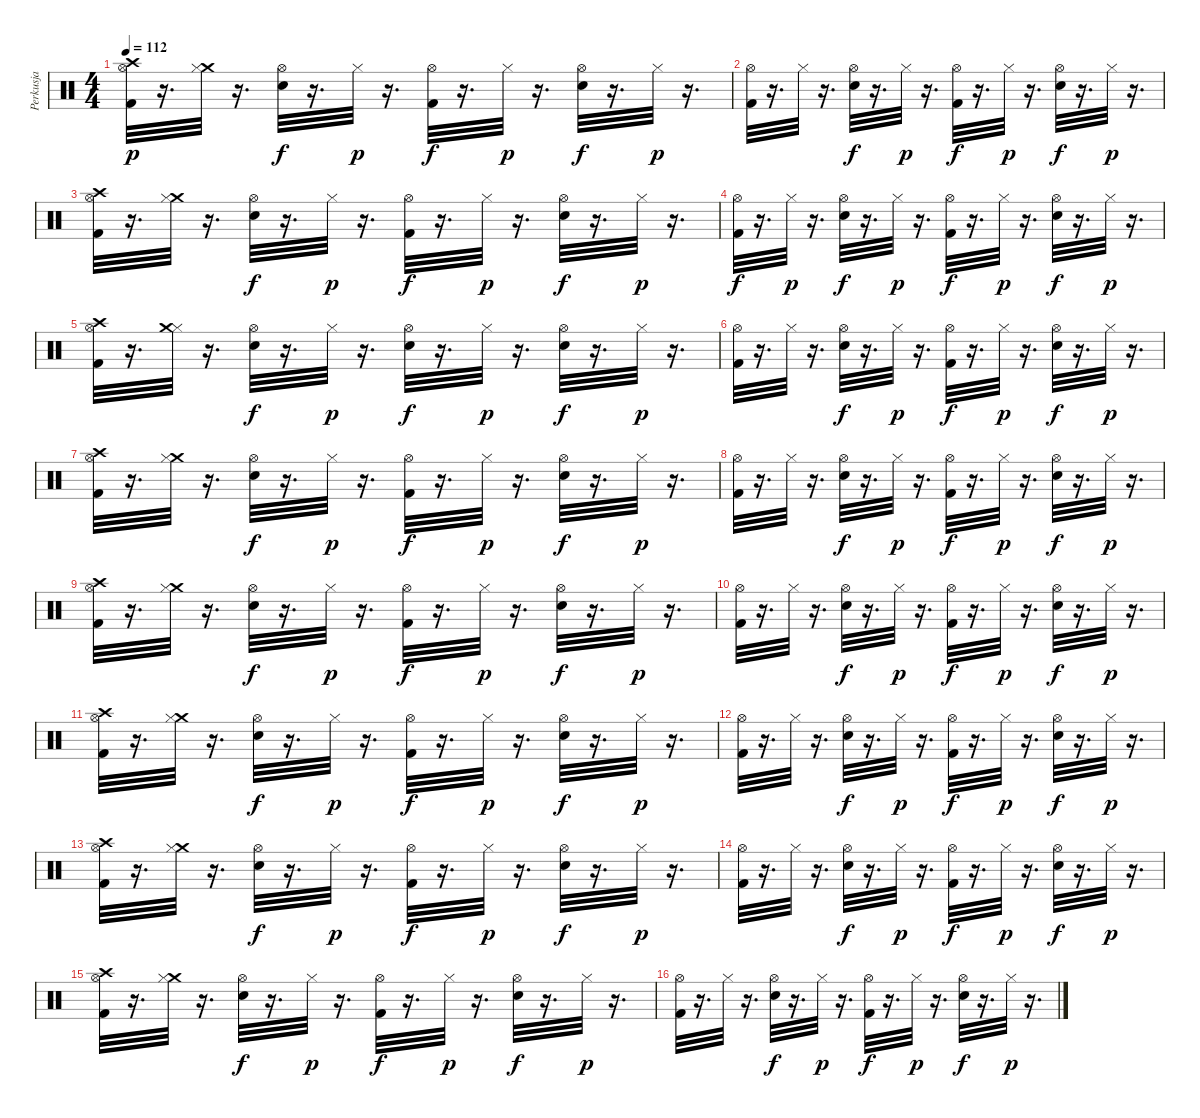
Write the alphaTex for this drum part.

\track ("Perkusja" "Perkusja") {instrument percussion}
\staff {score}
\articulation defaults
\ts (4 4)
\tempo 112
\clef neutral
\ks c
("Crash high (hit)" "Hi-Hat (open)" "Kick (hit) 2").32{dy p} r.16{d} ("Crash medium (hit)" "Hi-Hat (closed)").32 r.16{d} ("Hi-Hat (open)" "Snare (hit) 2").32{dy f} r.16{d} "Hi-Hat (closed)".32{dy p} r.16{d} ("Hi-Hat (open)" "Kick (hit) 2").32{dy f} r.16{d} "Hi-Hat (closed)".32{dy p} r.16{d} ("Hi-Hat (open)" "Snare (hit) 2").32{dy f} r.16{d} "Hi-Hat (closed)".32{dy p} r.16{d} |
("Hi-Hat (open)" "Kick (hit) 2").32 r.16{d} "Hi-Hat (closed)".32 r.16{d} ("Hi-Hat (open)" "Snare (hit) 2").32{dy f} r.16{d} "Hi-Hat (closed)".32{dy p} r.16{d} ("Hi-Hat (open)" "Kick (hit) 2").32{dy f} r.16{d} "Hi-Hat (closed)".32{dy p} r.16{d} ("Hi-Hat (open)" "Snare (hit) 2").32{dy f} r.16{d} "Hi-Hat (closed)".32{dy p} r.16{d} |
("Crash high (hit)" "Hi-Hat (open)" "Kick (hit) 2").32 r.16{d} ("Crash medium (hit)" "Hi-Hat (closed)").32 r.16{d} ("Hi-Hat (open)" "Snare (hit) 2").32{dy f} r.16{d} "Hi-Hat (closed)".32{dy p} r.16{d} ("Hi-Hat (open)" "Kick (hit) 2").32{dy f} r.16{d} "Hi-Hat (closed)".32{dy p} r.16{d} ("Hi-Hat (open)" "Snare (hit) 2").32{dy f} r.16{d} "Hi-Hat (closed)".32{dy p} r.16{d} |
("Hi-Hat (open)" "Kick (hit) 2").32{dy f} r.16{d} "Hi-Hat (closed)".32{dy p} r.16{d} ("Hi-Hat (open)" "Snare (hit) 2").32{dy f} r.16{d} "Hi-Hat (closed)".32{dy p} r.16{d} ("Hi-Hat (open)" "Kick (hit) 2").32{dy f} r.16{d} "Hi-Hat (closed)".32{dy p} r.16{d} ("Hi-Hat (open)" "Snare (hit) 2").32{dy f} r.16{d} "Hi-Hat (closed)".32{dy p} r.16{d} |
("Crash high (hit)" "Hi-Hat (open)" "Kick (hit) 2").32 r.16{d} ("Hi-Hat (closed)" "Crash medium (hit)").32 r.16{d} ("Hi-Hat (open)" "Snare (hit) 2").32{dy f} r.16{d} "Hi-Hat (closed)".32{dy p} r.16{d} ("Hi-Hat (open)" "Snare (hit) 2").32{dy f} r.16{d} "Hi-Hat (closed)".32{dy p} r.16{d} ("Hi-Hat (open)" "Snare (hit) 2").32{dy f} r.16{d} "Hi-Hat (closed)".32{dy p} r.16{d} |
("Hi-Hat (open)" "Kick (hit) 2").32 r.16{d} "Hi-Hat (closed)".32 r.16{d} ("Hi-Hat (open)" "Snare (hit) 2").32{dy f} r.16{d} "Hi-Hat (closed)".32{dy p} r.16{d} ("Hi-Hat (open)" "Kick (hit) 2").32{dy f} r.16{d} "Hi-Hat (closed)".32{dy p} r.16{d} ("Hi-Hat (open)" "Snare (hit) 2").32{dy f} r.16{d} "Hi-Hat (closed)".32{dy p} r.16{d} |
("Crash high (hit)" "Hi-Hat (open)" "Kick (hit) 2").32 r.16{d} ("Crash medium (hit)" "Hi-Hat (closed)").32 r.16{d} ("Hi-Hat (open)" "Snare (hit) 2").32{dy f} r.16{d} "Hi-Hat (closed)".32{dy p} r.16{d} ("Hi-Hat (open)" "Kick (hit) 2").32{dy f} r.16{d} "Hi-Hat (closed)".32{dy p} r.16{d} ("Hi-Hat (open)" "Snare (hit) 2").32{dy f} r.16{d} "Hi-Hat (closed)".32{dy p} r.16{d} |
("Hi-Hat (open)" "Kick (hit) 2").32 r.16{d} "Hi-Hat (closed)".32 r.16{d} ("Hi-Hat (open)" "Snare (hit) 2").32{dy f} r.16{d} "Hi-Hat (closed)".32{dy p} r.16{d} ("Hi-Hat (open)" "Kick (hit) 2").32{dy f} r.16{d} "Hi-Hat (closed)".32{dy p} r.16{d} ("Hi-Hat (open)" "Snare (hit) 2").32{dy f} r.16{d} "Hi-Hat (closed)".32{dy p} r.16{d} |
("Crash high (hit)" "Hi-Hat (open)" "Kick (hit) 2").32 r.16{d} ("Crash medium (hit)" "Hi-Hat (closed)").32 r.16{d} ("Hi-Hat (open)" "Snare (hit) 2").32{dy f} r.16{d} "Hi-Hat (closed)".32{dy p} r.16{d} ("Hi-Hat (open)" "Kick (hit) 2").32{dy f} r.16{d} "Hi-Hat (closed)".32{dy p} r.16{d} ("Hi-Hat (open)" "Snare (hit) 2").32{dy f} r.16{d} "Hi-Hat (closed)".32{dy p} r.16{d} |
("Hi-Hat (open)" "Kick (hit) 2").32 r.16{d} "Hi-Hat (closed)".32 r.16{d} ("Hi-Hat (open)" "Snare (hit) 2").32{dy f} r.16{d} "Hi-Hat (closed)".32{dy p} r.16{d} ("Hi-Hat (open)" "Kick (hit) 2").32{dy f} r.16{d} "Hi-Hat (closed)".32{dy p} r.16{d} ("Hi-Hat (open)" "Snare (hit) 2").32{dy f} r.16{d} "Hi-Hat (closed)".32{dy p} r.16{d} |
("Crash high (hit)" "Hi-Hat (open)" "Kick (hit) 2").32 r.16{d} ("Crash medium (hit)" "Hi-Hat (closed)").32 r.16{d} ("Hi-Hat (open)" "Snare (hit) 2").32{dy f} r.16{d} "Hi-Hat (closed)".32{dy p} r.16{d} ("Hi-Hat (open)" "Kick (hit) 2").32{dy f} r.16{d} "Hi-Hat (closed)".32{dy p} r.16{d} ("Hi-Hat (open)" "Snare (hit) 2").32{dy f} r.16{d} "Hi-Hat (closed)".32{dy p} r.16{d} |
("Hi-Hat (open)" "Kick (hit) 2").32 r.16{d} "Hi-Hat (closed)".32 r.16{d} ("Hi-Hat (open)" "Snare (hit) 2").32{dy f} r.16{d} "Hi-Hat (closed)".32{dy p} r.16{d} ("Hi-Hat (open)" "Kick (hit) 2").32{dy f} r.16{d} "Hi-Hat (closed)".32{dy p} r.16{d} ("Hi-Hat (open)" "Snare (hit) 2").32{dy f} r.16{d} "Hi-Hat (closed)".32{dy p} r.16{d} |
("Crash high (hit)" "Hi-Hat (open)" "Kick (hit) 2").32 r.16{d} ("Crash medium (hit)" "Hi-Hat (closed)").32 r.16{d} ("Hi-Hat (open)" "Snare (hit) 2").32{dy f} r.16{d} "Hi-Hat (closed)".32{dy p} r.16{d} ("Hi-Hat (open)" "Kick (hit) 2").32{dy f} r.16{d} "Hi-Hat (closed)".32{dy p} r.16{d} ("Hi-Hat (open)" "Snare (hit) 2").32{dy f} r.16{d} "Hi-Hat (closed)".32{dy p} r.16{d} |
("Hi-Hat (open)" "Kick (hit) 2").32 r.16{d} "Hi-Hat (closed)".32 r.16{d} ("Hi-Hat (open)" "Snare (hit) 2").32{dy f} r.16{d} "Hi-Hat (closed)".32{dy p} r.16{d} ("Hi-Hat (open)" "Kick (hit) 2").32{dy f} r.16{d} "Hi-Hat (closed)".32{dy p} r.16{d} ("Hi-Hat (open)" "Snare (hit) 2").32{dy f} r.16{d} "Hi-Hat (closed)".32{dy p} r.16{d} |
("Crash high (hit)" "Hi-Hat (open)" "Kick (hit) 2").32 r.16{d} ("Crash medium (hit)" "Hi-Hat (closed)").32 r.16{d} ("Hi-Hat (open)" "Snare (hit) 2").32{dy f} r.16{d} "Hi-Hat (closed)".32{dy p} r.16{d} ("Hi-Hat (open)" "Kick (hit) 2").32{dy f} r.16{d} "Hi-Hat (closed)".32{dy p} r.16{d} ("Hi-Hat (open)" "Snare (hit) 2").32{dy f} r.16{d} "Hi-Hat (closed)".32{dy p} r.16{d} |
("Hi-Hat (open)" "Kick (hit) 2").32 r.16{d} "Hi-Hat (closed)".32 r.16{d} ("Hi-Hat (open)" "Snare (hit) 2").32{dy f} r.16{d} "Hi-Hat (closed)".32{dy p} r.16{d} ("Hi-Hat (open)" "Kick (hit) 2").32{dy f} r.16{d} "Hi-Hat (closed)".32{dy p} r.16{d} ("Hi-Hat (open)" "Snare (hit) 2").32{dy f} r.16{d} "Hi-Hat (closed)".32{dy p} r.16{d}
